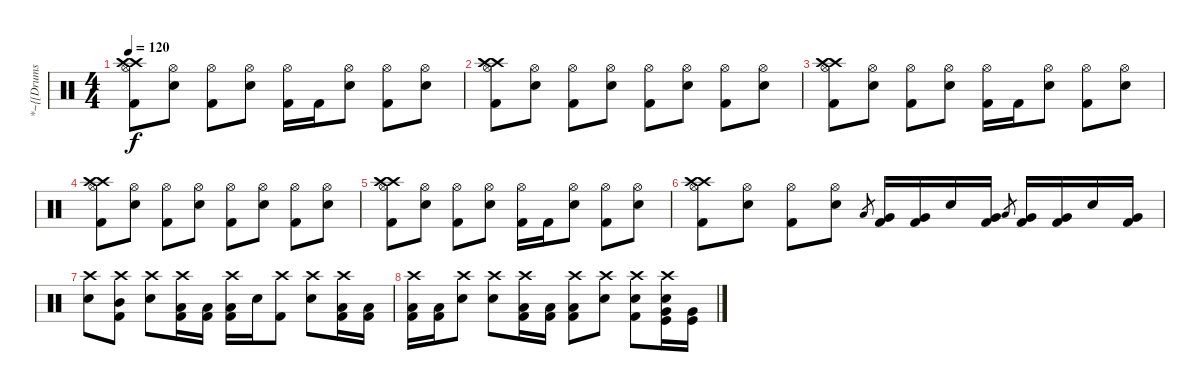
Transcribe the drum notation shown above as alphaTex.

\track ("*~{[Drums    - Tabbed by Peter B.]}~*" "*~{[Drums ") {instrument percussion}
\staff {score}
\articulation defaults
\ts (4 4)
\tempo 120
\clef neutral
\ks c
("Crash high (hit)" "Crash high (hit)" "Hi-Hat (open)" "Kick (hit) 2").8{dy f} ("Hi-Hat (open)" "Electric Snare (hit)").8 ("Hi-Hat (open)" "Kick (hit) 2").8 ("Hi-Hat (open)" "Electric Snare (hit)").8 ("Hi-Hat (open)" "Kick (hit) 2").16 "Kick (hit) 2".16 ("Hi-Hat (open)" "Electric Snare (hit)").8 ("Hi-Hat (open)" "Kick (hit) 2").8 ("Hi-Hat (open)" "Electric Snare (hit)").8 |
("Crash high (hit)" "Crash high (hit)" "Hi-Hat (open)" "Kick (hit) 2").8 ("Hi-Hat (open)" "Electric Snare (hit)").8 ("Hi-Hat (open)" "Kick (hit) 2").8 ("Hi-Hat (open)" "Electric Snare (hit)").8 ("Hi-Hat (open)" "Kick (hit) 2").8 ("Hi-Hat (open)" "Electric Snare (hit)").8 ("Hi-Hat (open)" "Kick (hit) 2").8 ("Hi-Hat (open)" "Electric Snare (hit)").8 |
("Crash high (hit)" "Crash high (hit)" "Hi-Hat (open)" "Kick (hit) 2").8 ("Hi-Hat (open)" "Electric Snare (hit)").8 ("Hi-Hat (open)" "Kick (hit) 2").8 ("Hi-Hat (open)" "Electric Snare (hit)").8 ("Hi-Hat (open)" "Kick (hit) 2").16 "Kick (hit) 2".16 ("Hi-Hat (open)" "Electric Snare (hit)").8 ("Hi-Hat (open)" "Kick (hit) 2").8 ("Hi-Hat (open)" "Electric Snare (hit)").8 |
("Crash high (hit)" "Crash high (hit)" "Hi-Hat (open)" "Kick (hit) 2").8 ("Hi-Hat (open)" "Electric Snare (hit)").8 ("Hi-Hat (open)" "Kick (hit) 2").8 ("Hi-Hat (open)" "Electric Snare (hit)").8 ("Hi-Hat (open)" "Kick (hit) 2").8 ("Hi-Hat (open)" "Electric Snare (hit)").8 ("Hi-Hat (open)" "Kick (hit) 2").8 ("Hi-Hat (open)" "Electric Snare (hit)").8 |
("Crash high (hit)" "Crash high (hit)" "Hi-Hat (open)" "Kick (hit) 2").8 ("Hi-Hat (open)" "Electric Snare (hit)").8 ("Hi-Hat (open)" "Kick (hit) 2").8 ("Hi-Hat (open)" "Electric Snare (hit)").8 ("Hi-Hat (open)" "Kick (hit) 2").16 "Kick (hit) 2".16 ("Hi-Hat (open)" "Electric Snare (hit)").8 ("Hi-Hat (open)" "Kick (hit) 2").8 ("Hi-Hat (open)" "Electric Snare (hit)").8 |
("Crash high (hit)" "Crash high (hit)" "Hi-Hat (open)" "Kick (hit) 2").8 ("Hi-Hat (open)" "Electric Snare (hit)").8 ("Hi-Hat (open)" "Kick (hit) 2").8 ("Hi-Hat (open)" "Electric Snare (hit)").8 "Low Tom (hit)".8{gr} ("Very Low Tom (hit)" "Kick (hit) 2").16 ("Very Low Tom (hit)" "Kick (hit) 2").16 "Electric Snare (hit)".16 ("Very Low Tom (hit)" "Kick (hit) 2").16 "Low Tom (hit)".8{gr} ("Very Low Tom (hit)" "Kick (hit) 2").16 ("Very Low Tom (hit)" "Kick (hit) 2").16 "Electric Snare (hit)".16 ("Very Low Tom (hit)" "Kick (hit) 2").16 |
("Crash high (hit)" "Electric Snare (hit)").8 ("Crash high (hit)" "Mid Tom (hit)" "Kick (hit) 2").8 ("Crash high (hit)" "Electric Snare (hit)").8 ("Crash high (hit)" "Low Tom (hit)" "Kick (hit) 2").16 ("Low Tom (hit)" "Kick (hit) 2").16 ("Crash high (hit)" "Low Tom (hit)" "Kick (hit) 2").16 "Electric Snare (hit)".16 ("Crash high (hit)" "Kick (hit) 2").8 ("Crash high (hit)" "Electric Snare (hit)").8 ("Crash high (hit)" "Low Tom (hit)" "Kick (hit) 2").16 ("Low Tom (hit)" "Kick (hit) 2").16 |
("Crash high (hit)" "Low Tom (hit)" "Kick (hit) 2").16 ("Low Tom (hit)" "Kick (hit) 2").16 ("Crash high (hit)" "Electric Snare (hit)").8 ("Crash high (hit)" "Electric Snare (hit)").8 ("Crash high (hit)" "Low Tom (hit)" "Kick (hit) 2").16 ("Low Tom (hit)" "Kick (hit) 2").16 ("Crash high (hit)" "Low Tom (hit)" "Kick (hit) 2").8 ("Crash high (hit)" "Electric Snare (hit)").8 ("Crash high (hit)" "Snare (hit)" "Kick (hit) 2").8 ("Crash high (hit)" "Electric Snare (hit)" "Very Low Tom (hit)" "Kick (hit)").16 ("Very Low Tom (hit)" "Kick (hit)").16
